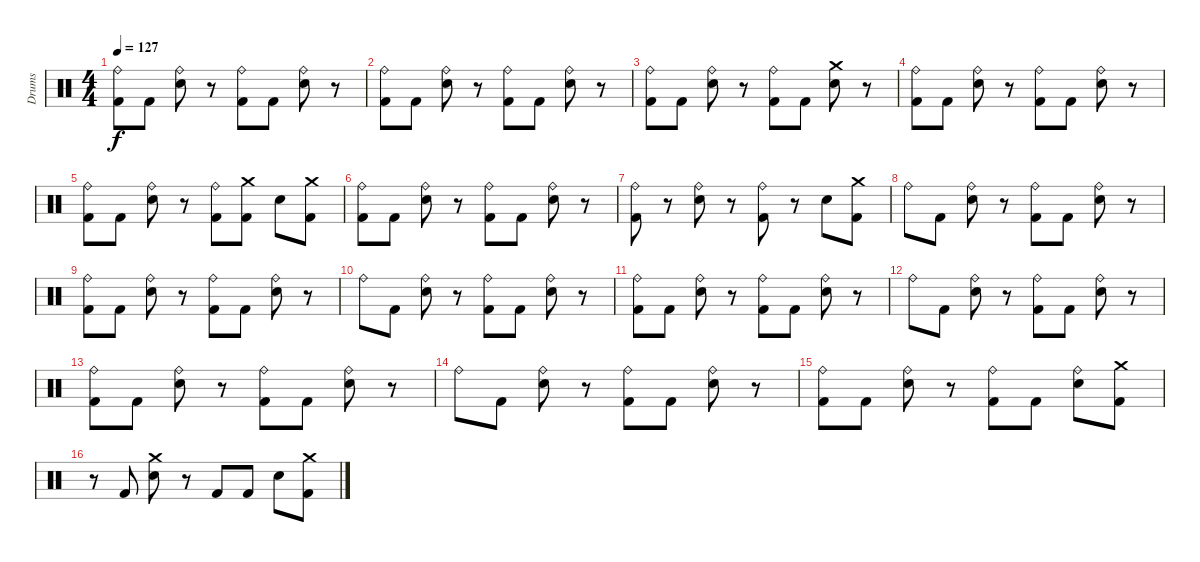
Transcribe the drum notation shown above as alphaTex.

\track ("Drums" "Drums") {instrument percussion}
\staff {score}
\articulation defaults
\ts (4 4)
\tempo 127
\clef neutral
\ks c
("Ride (bell)" "Kick (hit) 2").8{dy f} "Kick (hit) 2".8 ("Ride (bell)" "Snare (hit) 2").8 r.8 ("Ride (bell)" "Kick (hit) 2").8 "Kick (hit) 2".8 ("Ride (bell)" "Snare (hit) 2").8 r.8 |
("Ride (bell)" "Kick (hit) 2").8 "Kick (hit) 2".8 ("Ride (bell)" "Snare (hit) 2").8 r.8 ("Ride (bell)" "Kick (hit) 2").8 "Kick (hit) 2".8 ("Ride (bell)" "Snare (hit) 2").8 r.8 |
("Ride (bell)" "Kick (hit) 2").8 "Kick (hit) 2".8 ("Ride (bell)" "Snare (hit) 2").8 r.8 ("Ride (bell)" "Kick (hit) 2").8 "Kick (hit) 2".8 ("Crash medium (hit)" "Snare (hit) 2").8 r.8 |
("Ride (bell)" "Kick (hit) 2").8 "Kick (hit) 2".8 ("Ride (bell)" "Snare (hit) 2").8 r.8 ("Ride (bell)" "Kick (hit) 2").8 "Kick (hit) 2".8 ("Ride (bell)" "Snare (hit) 2").8 r.8 |
("Ride (bell)" "Kick (hit) 2").8 "Kick (hit) 2".8 ("Ride (bell)" "Snare (hit) 2").8 r.8 ("Ride (bell)" "Kick (hit) 2").8 ("Crash medium (hit)" "Kick (hit) 2").8 "Snare (hit) 2".8 ("Crash medium (hit)" "Kick (hit) 2").8 |
("Ride (bell)" "Kick (hit) 2").8 "Kick (hit) 2".8 ("Ride (bell)" "Snare (hit) 2").8 r.8 ("Ride (bell)" "Kick (hit) 2").8 "Kick (hit) 2".8 ("Ride (bell)" "Snare (hit) 2").8 r.8 |
("Ride (bell)" "Kick (hit) 2").8 r.8 ("Ride (bell)" "Snare (hit) 2").8 r.8 ("Ride (bell)" "Kick (hit) 2").8 r.8 "Snare (hit) 2".8 ("Crash medium (hit)" "Kick (hit) 2").8 |
"Ride (bell)".8 "Kick (hit) 2".8 ("Ride (bell)" "Snare (hit) 2").8 r.8 ("Ride (bell)" "Kick (hit) 2").8 "Kick (hit) 2".8 ("Ride (bell)" "Snare (hit) 2").8 r.8 |
("Ride (bell)" "Kick (hit) 2").8 "Kick (hit) 2".8 ("Ride (bell)" "Snare (hit) 2").8 r.8 ("Ride (bell)" "Kick (hit) 2").8 "Kick (hit) 2".8 ("Ride (bell)" "Snare (hit) 2").8 r.8 |
"Ride (bell)".8 "Kick (hit) 2".8 ("Ride (bell)" "Snare (hit) 2").8 r.8 ("Ride (bell)" "Kick (hit) 2").8 "Kick (hit) 2".8 ("Ride (bell)" "Snare (hit) 2").8 r.8 |
("Ride (bell)" "Kick (hit) 2").8 "Kick (hit) 2".8 ("Ride (bell)" "Snare (hit) 2").8 r.8 ("Ride (bell)" "Kick (hit) 2").8 "Kick (hit) 2".8 ("Ride (bell)" "Snare (hit) 2").8 r.8 |
"Ride (bell)".8 "Kick (hit) 2".8 ("Ride (bell)" "Snare (hit) 2").8 r.8 ("Ride (bell)" "Kick (hit) 2").8 "Kick (hit) 2".8 ("Ride (bell)" "Snare (hit) 2").8 r.8 |
("Ride (bell)" "Kick (hit) 2").8 "Kick (hit) 2".8 ("Ride (bell)" "Snare (hit) 2").8 r.8 ("Ride (bell)" "Kick (hit) 2").8 "Kick (hit) 2".8 ("Ride (bell)" "Snare (hit) 2").8 r.8 |
"Ride (bell)".8 "Kick (hit) 2".8 ("Ride (bell)" "Snare (hit) 2").8 r.8 ("Ride (bell)" "Kick (hit) 2").8 "Kick (hit) 2".8 ("Ride (bell)" "Snare (hit) 2").8 r.8 |
("Ride (bell)" "Kick (hit) 2").8 "Kick (hit) 2".8 ("Ride (bell)" "Snare (hit) 2").8 r.8 ("Ride (bell)" "Kick (hit) 2").8 "Kick (hit) 2".8 ("Ride (bell)" "Snare (hit) 2").8 ("Crash medium (hit)" "Kick (hit) 2").8 |
r.8 "Kick (hit) 2".8 ("Crash medium (hit)" "Snare (hit) 2").8 r.8 "Kick (hit) 2".8 "Kick (hit) 2".8 "Snare (hit) 2".8 ("Crash medium (hit)" "Kick (hit) 2").8
